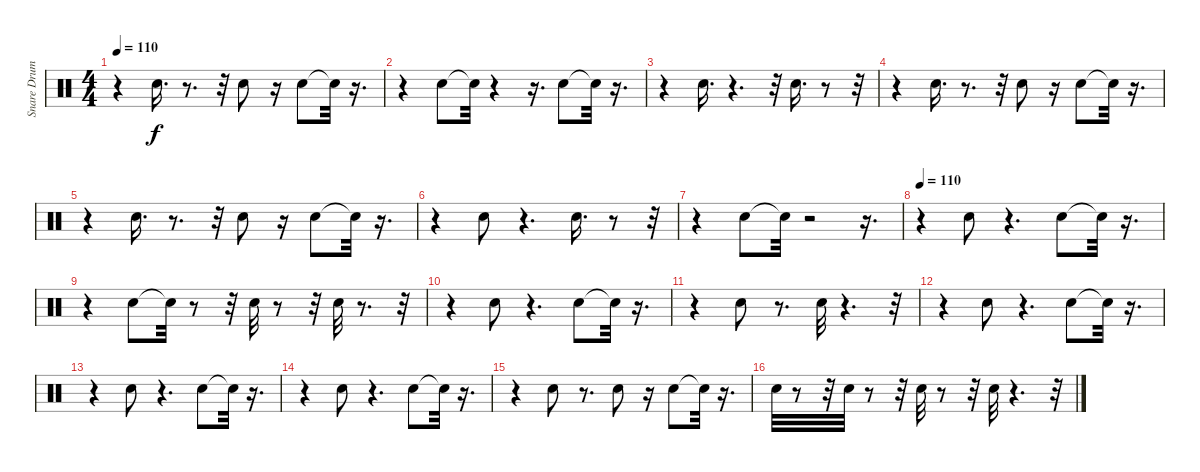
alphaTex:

\track ("Snare Drum" "Snare Drum") {instrument percussion}
\staff {score}
\articulation defaults
\ts (4 4)
\tempo 110
\clef neutral
\ks c
r.4{dy f} "Snare (hit) 2".16{d} r.8{d} r.32 "Snare (hit) 2".8 r.16 "Snare (hit) 2".8 "Snare (hit)"{t}.32 r.16{d} |
r.4 "Snare (hit) 2".8 "Snare (hit)"{t}.32 r.4 r.16{d} "Snare (hit) 2".8 "Snare (hit)"{t}.32 r.16{d} |
r.4 "Snare (hit) 2".16{d} r.4{d} r.32 "Snare (hit) 2".16{d} r.8 r.32 |
r.4 "Snare (hit) 2".16{d} r.8{d} r.32 "Snare (hit) 2".8 r.16 "Snare (hit) 2".8 "Snare (hit)"{t}.32 r.16{d} |
r.4 "Snare (hit) 2".16{d} r.8{d} r.32 "Snare (hit) 2".8 r.16 "Snare (hit) 2".8 "Snare (hit)"{t}.32 r.16{d} |
r.4 "Snare (hit) 2".8 r.4{d} "Snare (hit) 2".16{d} r.8 r.32 |
r.4 "Snare (hit) 2".8 "Snare (hit)"{t}.32 r.2 r.16{d} |
\tempo 110
r.4 "Snare (hit) 2".8 r.4{d} "Snare (hit) 2".8 "Snare (hit)"{t}.32 r.16{d} |
r.4 "Snare (hit) 2".8 "Snare (hit)"{t}.32 r.8 r.32 "Snare (hit) 2".32 r.8 r.32 "Snare (hit) 2".32 r.8{d} r.32 |
r.4 "Snare (hit) 2".8 r.4{d} "Snare (hit) 2".8 "Snare (hit)"{t}.32 r.16{d} |
r.4 "Snare (hit) 2".8 r.8{d} "Snare (hit) 2".32 r.4{d} r.32 |
r.4 "Snare (hit) 2".8 r.4{d} "Snare (hit) 2".8 "Snare (hit)"{t}.32 r.16{d} |
r.4 "Snare (hit) 2".8 r.4{d} "Snare (hit) 2".8 "Snare (hit)"{t}.32 r.16{d} |
r.4 "Snare (hit) 2".8 r.4{d} "Snare (hit) 2".8 "Snare (hit)"{t}.32 r.16{d} |
r.4 "Snare (hit) 2".8 r.8{d} "Snare (hit) 2".8 r.16 "Snare (hit) 2".8 "Snare (hit)"{t}.32 r.16{d} |
"Snare (hit) 2".32 r.8 r.32 "Snare (hit) 2".32 r.8 r.32 "Snare (hit) 2".32 r.8 r.32 "Snare (hit) 2".32 r.4{d} r.32
